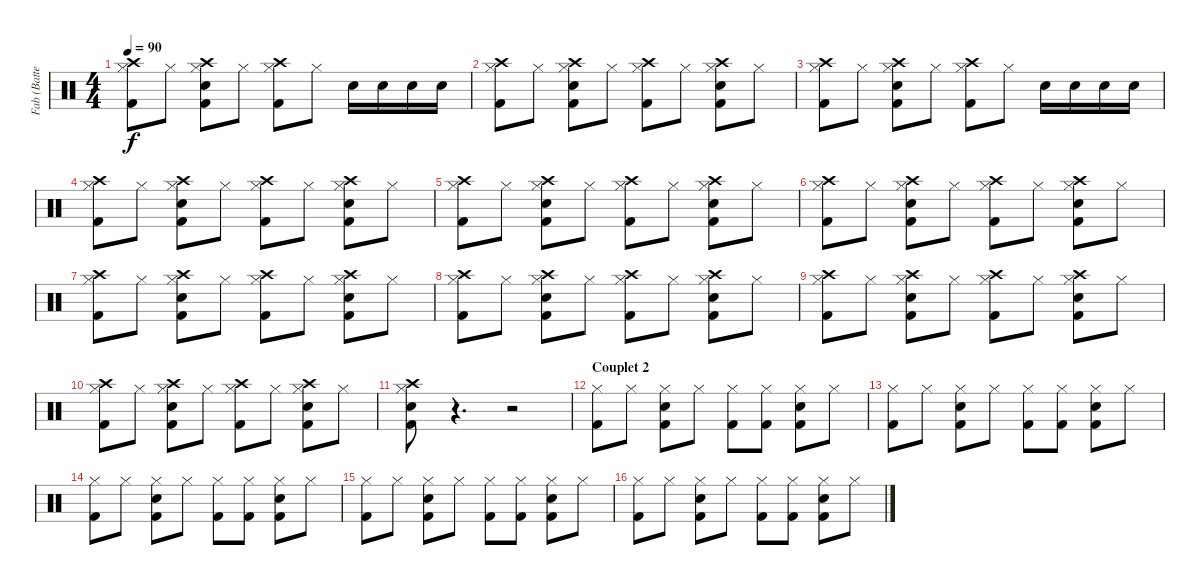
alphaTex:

\track ("Fab (Batterie)" "Fab (Batte") {instrument percussion}
\staff {score}
\articulation defaults
\ts (4 4)
\tempo 90
\clef neutral
\ks c
("Crash high (hit)" "Hi-Hat (closed)" "Kick (hit) 2").8{dy f} "Hi-Hat (closed)".8 ("Crash high (hit)" "Hi-Hat (closed)" "Snare (hit) 2" "Kick (hit) 2").8 "Hi-Hat (closed)".8 ("Crash high (hit)" "Hi-Hat (closed)" "Kick (hit) 2").8 "Hi-Hat (closed)".8 "Snare (hit) 2".16 "Snare (hit) 2".16 "Snare (hit) 2".16 "Snare (hit) 2".16 |
("Crash high (hit)" "Hi-Hat (closed)" "Kick (hit) 2").8 "Hi-Hat (closed)".8 ("Crash high (hit)" "Hi-Hat (closed)" "Snare (hit) 2" "Kick (hit) 2").8 "Hi-Hat (closed)".8 ("Crash high (hit)" "Hi-Hat (closed)" "Kick (hit) 2").8 "Hi-Hat (closed)".8 ("Crash high (hit)" "Hi-Hat (closed)" "Snare (hit) 2" "Kick (hit) 2").8 "Hi-Hat (closed)".8 |
("Crash high (hit)" "Hi-Hat (closed)" "Kick (hit) 2").8 "Hi-Hat (closed)".8 ("Crash high (hit)" "Hi-Hat (closed)" "Snare (hit) 2" "Kick (hit) 2").8 "Hi-Hat (closed)".8 ("Crash high (hit)" "Hi-Hat (closed)" "Kick (hit) 2").8 "Hi-Hat (closed)".8 "Snare (hit) 2".16 "Snare (hit) 2".16 "Snare (hit) 2".16 "Snare (hit) 2".16 |
("Crash high (hit)" "Hi-Hat (closed)" "Kick (hit) 2").8 "Hi-Hat (closed)".8 ("Crash high (hit)" "Hi-Hat (closed)" "Snare (hit) 2" "Kick (hit) 2").8 "Hi-Hat (closed)".8 ("Crash high (hit)" "Hi-Hat (closed)" "Kick (hit) 2").8 "Hi-Hat (closed)".8 ("Crash high (hit)" "Hi-Hat (closed)" "Snare (hit) 2" "Kick (hit) 2").8 "Hi-Hat (closed)".8 |
("Crash high (hit)" "Hi-Hat (closed)" "Kick (hit) 2").8 "Hi-Hat (closed)".8 ("Crash high (hit)" "Hi-Hat (closed)" "Snare (hit) 2" "Kick (hit) 2").8 "Hi-Hat (closed)".8 ("Crash high (hit)" "Hi-Hat (closed)" "Kick (hit) 2").8 "Hi-Hat (closed)".8 ("Crash high (hit)" "Hi-Hat (closed)" "Snare (hit) 2" "Kick (hit) 2").8 "Hi-Hat (closed)".8 |
("Crash high (hit)" "Hi-Hat (closed)" "Kick (hit) 2").8 "Hi-Hat (closed)".8 ("Crash high (hit)" "Hi-Hat (closed)" "Snare (hit) 2" "Kick (hit) 2").8 "Hi-Hat (closed)".8 ("Crash high (hit)" "Hi-Hat (closed)" "Kick (hit) 2").8 "Hi-Hat (closed)".8 ("Crash high (hit)" "Hi-Hat (closed)" "Snare (hit) 2" "Kick (hit) 2").8 "Hi-Hat (closed)".8 |
("Crash high (hit)" "Hi-Hat (closed)" "Kick (hit) 2").8 "Hi-Hat (closed)".8 ("Crash high (hit)" "Hi-Hat (closed)" "Snare (hit) 2" "Kick (hit) 2").8 "Hi-Hat (closed)".8 ("Crash high (hit)" "Hi-Hat (closed)" "Kick (hit) 2").8 "Hi-Hat (closed)".8 ("Crash high (hit)" "Hi-Hat (closed)" "Snare (hit) 2" "Kick (hit) 2").8 "Hi-Hat (closed)".8 |
("Crash high (hit)" "Hi-Hat (closed)" "Kick (hit) 2").8 "Hi-Hat (closed)".8 ("Crash high (hit)" "Hi-Hat (closed)" "Snare (hit) 2" "Kick (hit) 2").8 "Hi-Hat (closed)".8 ("Crash high (hit)" "Hi-Hat (closed)" "Kick (hit) 2").8 "Hi-Hat (closed)".8 ("Crash high (hit)" "Hi-Hat (closed)" "Snare (hit) 2" "Kick (hit) 2").8 "Hi-Hat (closed)".8 |
("Crash high (hit)" "Hi-Hat (closed)" "Kick (hit) 2").8 "Hi-Hat (closed)".8 ("Crash high (hit)" "Hi-Hat (closed)" "Snare (hit) 2" "Kick (hit) 2").8 "Hi-Hat (closed)".8 ("Crash high (hit)" "Hi-Hat (closed)" "Kick (hit) 2").8 "Hi-Hat (closed)".8 ("Crash high (hit)" "Hi-Hat (closed)" "Snare (hit) 2" "Kick (hit) 2").8 "Hi-Hat (closed)".8 |
("Crash high (hit)" "Hi-Hat (closed)" "Kick (hit) 2").8 "Hi-Hat (closed)".8 ("Crash high (hit)" "Hi-Hat (closed)" "Snare (hit) 2" "Kick (hit) 2").8 "Hi-Hat (closed)".8 ("Crash high (hit)" "Hi-Hat (closed)" "Kick (hit) 2").8 "Hi-Hat (closed)".8 ("Crash high (hit)" "Hi-Hat (closed)" "Snare (hit) 2" "Kick (hit) 2").8 "Hi-Hat (closed)".8 |
("Crash high (hit)" "Hi-Hat (closed)" "Snare (hit) 2" "Kick (hit) 2").8 r.4{d} r.2 |
\section ("" "Couplet 2")
("Hi-Hat (closed)" "Kick (hit) 2").8 "Hi-Hat (closed)".8 ("Hi-Hat (closed)" "Snare (hit) 2" "Kick (hit) 2").8 "Hi-Hat (closed)".8 ("Hi-Hat (closed)" "Kick (hit) 2").8 ("Hi-Hat (closed)" "Kick (hit) 2").8 ("Hi-Hat (closed)" "Snare (hit) 2" "Kick (hit) 2").8 "Hi-Hat (closed)".8 |
("Hi-Hat (closed)" "Kick (hit) 2").8 "Hi-Hat (closed)".8 ("Hi-Hat (closed)" "Snare (hit) 2" "Kick (hit) 2").8 "Hi-Hat (closed)".8 ("Hi-Hat (closed)" "Kick (hit) 2").8 ("Hi-Hat (closed)" "Kick (hit) 2").8 ("Hi-Hat (closed)" "Snare (hit) 2" "Kick (hit) 2").8 "Hi-Hat (closed)".8 |
("Hi-Hat (closed)" "Kick (hit) 2").8 "Hi-Hat (closed)".8 ("Hi-Hat (closed)" "Snare (hit) 2" "Kick (hit) 2").8 "Hi-Hat (closed)".8 ("Hi-Hat (closed)" "Kick (hit) 2").8 ("Hi-Hat (closed)" "Kick (hit) 2").8 ("Hi-Hat (closed)" "Snare (hit) 2" "Kick (hit) 2").8 "Hi-Hat (closed)".8 |
("Hi-Hat (closed)" "Kick (hit) 2").8 "Hi-Hat (closed)".8 ("Hi-Hat (closed)" "Snare (hit) 2" "Kick (hit) 2").8 "Hi-Hat (closed)".8 ("Hi-Hat (closed)" "Kick (hit) 2").8 ("Hi-Hat (closed)" "Kick (hit) 2").8 ("Hi-Hat (closed)" "Snare (hit) 2" "Kick (hit) 2").8 "Hi-Hat (closed)".8 |
("Hi-Hat (closed)" "Kick (hit) 2").8 "Hi-Hat (closed)".8 ("Hi-Hat (closed)" "Snare (hit) 2" "Kick (hit) 2").8 "Hi-Hat (closed)".8 ("Hi-Hat (closed)" "Kick (hit) 2").8 ("Hi-Hat (closed)" "Kick (hit) 2").8 ("Hi-Hat (closed)" "Snare (hit) 2" "Kick (hit) 2").8 "Hi-Hat (closed)".8
